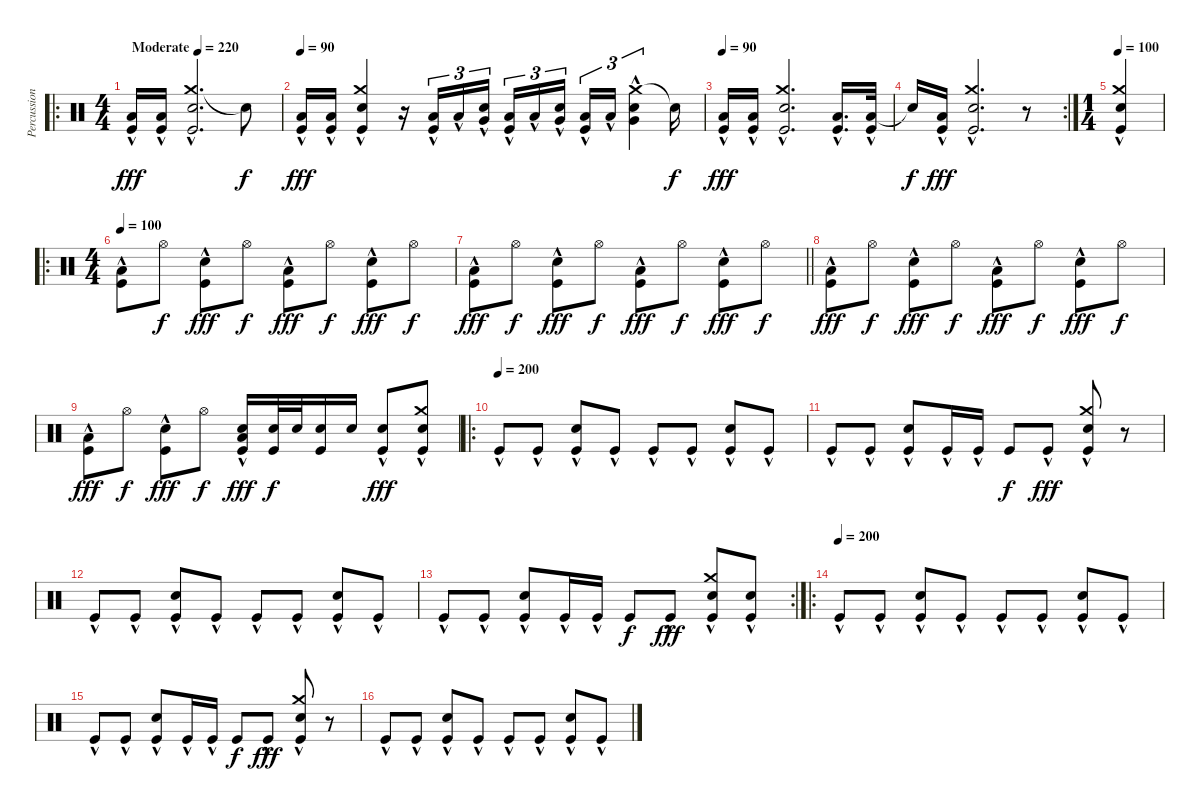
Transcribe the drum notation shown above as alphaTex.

\track ("Percussion" "Percussion") {instrument percussion}
\staff {score}
\articulation defaults
\ro
\ts (4 4)
\tempo (220 "Moderate")
\tempo 90
\tempo (220 "Moderate")
\clef neutral
\ks c
("Low Floor Tom (hit)"{hac} "Kick (hit)"{hac}).16{dy fff} ("Low Floor Tom (hit)"{hac} "Kick (hit)"{hac}).16 ("Crash medium (hit)" "Electric Snare (hit)" "Kick (hit)"{hac}).2{d} "Snare (hit)"{t}.8{dy f} |
\tempo 90
("Low Floor Tom (hit)"{hac} "Kick (hit)"{hac}).16{dy fff} ("Low Floor Tom (hit)"{hac} "Kick (hit)"{hac}).16 ("Crash medium (hit)" "Electric Snare (hit)" "Kick (hit)"{hac}).4 r.16 ("Low Floor Tom (hit)"{hac} "Kick (hit)"{hac}).16{tu (3 2)} "Low Floor Tom (hit)"{hac}.16{tu (3 2)} ("Very Low Tom (hit)"{hac} "Electric Snare (hit)"{hac}).16{tu (3 2) beam splitsecondary} ("Low Floor Tom (hit)"{hac} "Kick (hit)"{hac}).16{tu (3 2)} "Low Floor Tom (hit)"{hac}.16{tu (3 2)} ("Very Low Tom (hit)"{hac} "Electric Snare (hit)"{hac}).16{tu (3 2) beam splitsecondary} ("Low Floor Tom (hit)"{hac} "Kick (hit)"{hac}).16{tu (3 2)} "Low Floor Tom (hit)"{hac}.16{tu (3 2)} ("Crash medium (hit)"{hac} "Very Low Tom (hit)"{hac} "Electric Snare (hit)"{hac}).4{tu (3 2)} "Snare (hit)"{t}.16{dy f} |
\tempo 90
("Low Floor Tom (hit)"{hac} "Kick (hit)"{hac}).16{dy fff} ("Low Floor Tom (hit)"{hac} "Kick (hit)"{hac}).16 ("Crash medium (hit)" "Electric Snare (hit)" "Kick (hit)"{hac}).2{d} ("Low Floor Tom (hit)"{hac} "Kick (hit)"{hac}).16{d} ("Low Floor Tom (hit)"{hac} "Kick (hit)"{hac}).32 |
\rc 2 "Snare (hit)"{t}.16{dy f}
("Low Floor Tom (hit)"{hac} "Kick (hit)"{hac}).16{dy fff} ("Crash medium (hit)"{hac} "Electric Snare (hit)"{hac} "Kick (hit)"{hac}).2{d} r.8 |
\ts (1 4)
\tempo 100
("Crash medium (hit)"{hac} "Electric Snare (hit)"{hac} "Kick (hit)"{hac}).4 |
\ro
\ts (4 4)
\tempo 100
("Kick (hit)"{hac} "Low Floor Tom (hit)"{hac}).8 "Hi-Hat (open)".8{dy f} ("Kick (hit)"{hac} "Electric Snare (hit)").8{dy fff} "Hi-Hat (open)".8{dy f} ("Kick (hit)"{hac} "Low Floor Tom (hit)"{hac}).8{dy fff} "Hi-Hat (open)".8{dy f} ("Kick (hit)"{hac} "Electric Snare (hit)").8{dy fff} "Hi-Hat (open)".8{dy f} |
\barLineRight lightlight
("Kick (hit)"{hac} "Low Floor Tom (hit)"{hac}).8{dy fff} "Hi-Hat (open)".8{dy f} ("Kick (hit)"{hac} "Electric Snare (hit)").8{dy fff} "Hi-Hat (open)".8{dy f} ("Kick (hit)"{hac} "Low Floor Tom (hit)"{hac}).8{dy fff} "Hi-Hat (open)".8{dy f} ("Kick (hit)"{hac} "Electric Snare (hit)").8{dy fff} "Hi-Hat (open)".8{dy f} |
("Kick (hit)"{hac} "Low Floor Tom (hit)"{hac}).8{dy fff} "Hi-Hat (open)".8{dy f} ("Kick (hit)"{hac} "Electric Snare (hit)").8{dy fff} "Hi-Hat (open)".8{dy f} ("Kick (hit)"{hac} "Low Floor Tom (hit)"{hac}).8{dy fff} "Hi-Hat (open)".8{dy f} ("Kick (hit)"{hac} "Electric Snare (hit)").8{dy fff} "Hi-Hat (open)".8{dy f} |
("Kick (hit)"{hac} "Low Floor Tom (hit)"{hac}).8{dy fff} "Hi-Hat (open)".8{dy f} ("Kick (hit)"{hac} "Electric Snare (hit)").8{dy fff} "Hi-Hat (open)".8{dy f} ("Low Floor Tom (hit)"{hac} "Kick (hit)"{hac} "Electric Snare (hit)").16{dy fff} ("Kick (hit)" "Electric Snare (hit)").32{dy f} "Electric Snare (hit)".32 ("Kick (hit)" "Electric Snare (hit)").16 "Electric Snare (hit)".16 ("Kick (hit)"{hac} "Electric Snare (hit)").8{dy fff} ("Crash medium (hit)"{hac} "Kick (hit)"{hac} "Electric Snare (hit)"{hac}).8 |
\ro
\tempo (200)
"Kick (hit)"{hac}.8 "Kick (hit)"{hac}.8 ("Electric Snare (hit)" "Kick (hit)"{hac}).8 "Kick (hit)"{hac}.8 "Kick (hit)"{hac}.8 "Kick (hit)"{hac}.8 ("Electric Snare (hit)" "Kick (hit)"{hac}).8 "Kick (hit)"{hac}.8 |
"Kick (hit)"{hac}.8 "Kick (hit)"{hac}.8 ("Electric Snare (hit)" "Kick (hit)"{hac}).8 "Kick (hit)"{hac}.16 "Kick (hit)"{hac}.16 "Kick (hit)".8{dy f} "Kick (hit)"{hac}.8{dy fff} ("Crash medium (hit)" "Electric Snare (hit)" "Kick (hit)"{hac}).8 r.8 |
"Kick (hit)"{hac}.8 "Kick (hit)"{hac}.8 ("Electric Snare (hit)" "Kick (hit)"{hac}).8 "Kick (hit)"{hac}.8 "Kick (hit)"{hac}.8 "Kick (hit)"{hac}.8 ("Electric Snare (hit)" "Kick (hit)"{hac}).8 "Kick (hit)"{hac}.8 |
\rc 2 "Kick (hit)"{hac}.8 "Kick (hit)"{hac}.8
("Electric Snare (hit)" "Kick (hit)"{hac}).8 "Kick (hit)"{hac}.16 "Kick (hit)"{hac}.16 "Kick (hit)".8{dy f} "Kick (hit)"{hac}.8{dy fff} ("Crash medium (hit)" "Electric Snare (hit)" "Kick (hit)"{hac}).8 ("Electric Snare (hit)" "Kick (hit)"{hac}).8 |
\ro
\tempo (200)
"Kick (hit)"{hac}.8 "Kick (hit)"{hac}.8 ("Electric Snare (hit)" "Kick (hit)"{hac}).8 "Kick (hit)"{hac}.8 "Kick (hit)"{hac}.8 "Kick (hit)"{hac}.8 ("Electric Snare (hit)" "Kick (hit)"{hac}).8 "Kick (hit)"{hac}.8 |
"Kick (hit)"{hac}.8 "Kick (hit)"{hac}.8 ("Electric Snare (hit)" "Kick (hit)"{hac}).8 "Kick (hit)"{hac}.16 "Kick (hit)"{hac}.16 "Kick (hit)".8{dy f} "Kick (hit)"{hac}.8{dy fff} ("Crash medium (hit)" "Electric Snare (hit)" "Kick (hit)"{hac}).8 r.8 |
"Kick (hit)"{hac}.8 "Kick (hit)"{hac}.8 ("Electric Snare (hit)" "Kick (hit)"{hac}).8 "Kick (hit)"{hac}.8 "Kick (hit)"{hac}.8 "Kick (hit)"{hac}.8 ("Electric Snare (hit)" "Kick (hit)"{hac}).8 "Kick (hit)"{hac}.8
